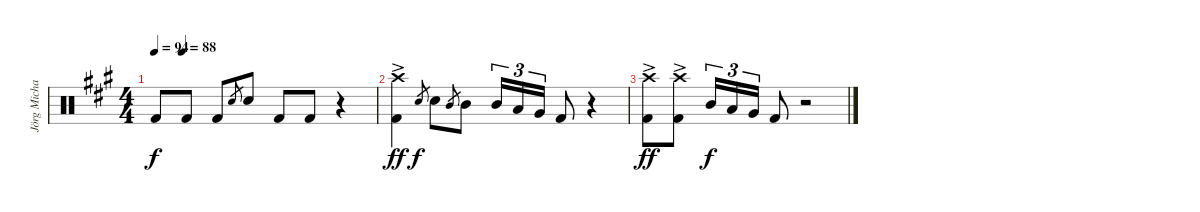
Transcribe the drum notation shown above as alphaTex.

\track ("Jörg Michael" "Jörg Micha") {instrument percussion}
\staff {score}
\articulation defaults
\ts (4 4)
\tempo 94
\tempo (88 0.125)
\clef neutral
\ks a "Kick (hit) 2".8{dy f} "Kick (hit) 2".8 "Kick (hit) 2".8 "Electric Snare (hit)".8{gr} "Electric Snare (hit)".8 "Kick (hit) 2".8 "Kick (hit) 2".8
r.4 |
("Crash high (hit)"{ac} "Kick (hit) 2"{ac}).4{dy ff} "Electric Snare (hit)".8{gr dy f} "Electric Snare (hit)".8 "Mid Tom (hit)".8{gr} "Mid Tom (hit)".8 "Mid Tom (hit)".16{tu (3 2)} "Low Tom (hit)".16{tu (3 2)} "Very Low Tom (hit)".16{tu (3 2)} "Kick (hit) 2".8 r.4 |
("Crash high (hit)"{ac} "Kick (hit) 2"{ac}).8{dy ff} ("Crash high (hit)"{ac} "Kick (hit) 2"{ac}).8 "Mid Tom (hit)".16{tu (3 2) dy f} "Low Tom (hit)".16{tu (3 2)} "Very Low Tom (hit)".16{tu (3 2)} "Kick (hit) 2".8 r.2
